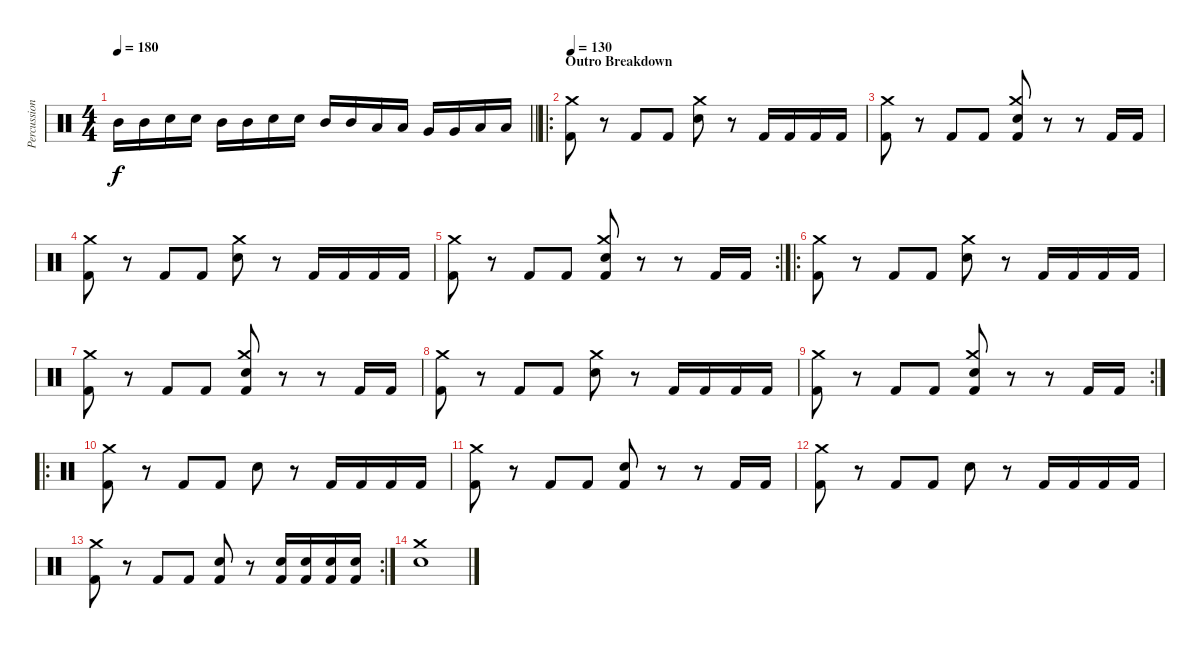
\track ("Percussion" "Percussion") {instrument percussion}
\staff {score}
\articulation defaults
\ts (4 4)
\tempo 180
\clef neutral
\barLineRight lightlight
\ks c "Mid Tom (hit)".16{dy f} "Mid Tom (hit)".16 "Electric Snare (hit)".16 "Electric Snare (hit)".16 "Mid Tom (hit)".16 "Mid Tom (hit)".16 "Electric Snare (hit)".16 "Electric Snare (hit)".16 "Mid Tom (hit)".16 "Mid Tom (hit)".16 "Low Tom (hit)".16 "Low Tom (hit)".16 "Very Low Tom (hit)".16 "Very Low Tom (hit)".16 "Low Floor Tom (hit)".16 "Low Floor Tom (hit)".16
|
\ro
\section ("" "Outro Breakdown")
\tempo 130
("Crash medium (hit)" "Kick (hit) 2").8 r.8 "Kick (hit) 2".8 "Kick (hit) 2".8 ("Crash medium (hit)" "Electric Snare (hit)").8 r.8 "Kick (hit) 2".16 "Kick (hit) 2".16 "Kick (hit) 2".16 "Kick (hit) 2".16 |
("Crash medium (hit)" "Kick (hit) 2").8 r.8 "Kick (hit) 2".8 "Kick (hit) 2".8 ("Crash medium (hit)" "Electric Snare (hit)" "Kick (hit) 2").8 r.8 r.8 "Kick (hit) 2".16 "Kick (hit) 2".16 |
("Crash medium (hit)" "Kick (hit) 2").8 r.8 "Kick (hit) 2".8 "Kick (hit) 2".8 ("Crash medium (hit)" "Electric Snare (hit)").8 r.8 "Kick (hit) 2".16 "Kick (hit) 2".16 "Kick (hit) 2".16 "Kick (hit) 2".16 |
\rc 2
("Crash medium (hit)" "Kick (hit) 2").8 r.8 "Kick (hit) 2".8 "Kick (hit) 2".8 ("Crash medium (hit)" "Electric Snare (hit)" "Kick (hit) 2").8 r.8 r.8 "Kick (hit) 2".16 "Kick (hit) 2".16 |
\ro
("Crash medium (hit)" "Kick (hit) 2").8 r.8 "Kick (hit) 2".8 "Kick (hit) 2".8 ("Crash medium (hit)" "Electric Snare (hit)").8 r.8 "Kick (hit) 2".16 "Kick (hit) 2".16 "Kick (hit) 2".16 "Kick (hit) 2".16 |
("Crash medium (hit)" "Kick (hit) 2").8 r.8 "Kick (hit) 2".8 "Kick (hit) 2".8 ("Crash medium (hit)" "Electric Snare (hit)" "Kick (hit) 2").8 r.8 r.8 "Kick (hit) 2".16 "Kick (hit) 2".16 |
("Crash medium (hit)" "Kick (hit) 2").8 r.8 "Kick (hit) 2".8 "Kick (hit) 2".8 ("Crash medium (hit)" "Electric Snare (hit)").8 r.8 "Kick (hit) 2".16 "Kick (hit) 2".16 "Kick (hit) 2".16 "Kick (hit) 2".16 |
\rc 2
("Crash medium (hit)" "Kick (hit) 2").8 r.8 "Kick (hit) 2".8 "Kick (hit) 2".8 ("Crash medium (hit)" "Electric Snare (hit)" "Kick (hit) 2").8 r.8 r.8 "Kick (hit) 2".16 "Kick (hit) 2".16 |
\ro
("Crash medium (hit)" "Kick (hit) 2").8 r.8 "Kick (hit) 2".8 "Kick (hit) 2".8 "Electric Snare (hit)".8 r.8 "Kick (hit) 2".16 "Kick (hit) 2".16 "Kick (hit) 2".16 "Kick (hit) 2".16 |
("Crash medium (hit)" "Kick (hit) 2").8 r.8 "Kick (hit) 2".8 "Kick (hit) 2".8 ("Electric Snare (hit)" "Kick (hit) 2").8 r.8 r.8 "Kick (hit) 2".16 "Kick (hit) 2".16 |
("Crash medium (hit)" "Kick (hit) 2").8 r.8 "Kick (hit) 2".8 "Kick (hit) 2".8 "Electric Snare (hit)".8 r.8 "Kick (hit) 2".16 "Kick (hit) 2".16 "Kick (hit) 2".16 "Kick (hit) 2".16 |
\rc 2
("Crash medium (hit)" "Kick (hit) 2").8 r.8 "Kick (hit) 2".8 "Kick (hit) 2".8 ("Electric Snare (hit)" "Kick (hit) 2").8 r.8 ("Electric Snare (hit)" "Kick (hit) 2").16 ("Electric Snare (hit)" "Kick (hit) 2").16 ("Electric Snare (hit)" "Kick (hit) 2").16 ("Electric Snare (hit)" "Kick (hit) 2").16 |
("Crash medium (hit)" "Electric Snare (hit)").1
